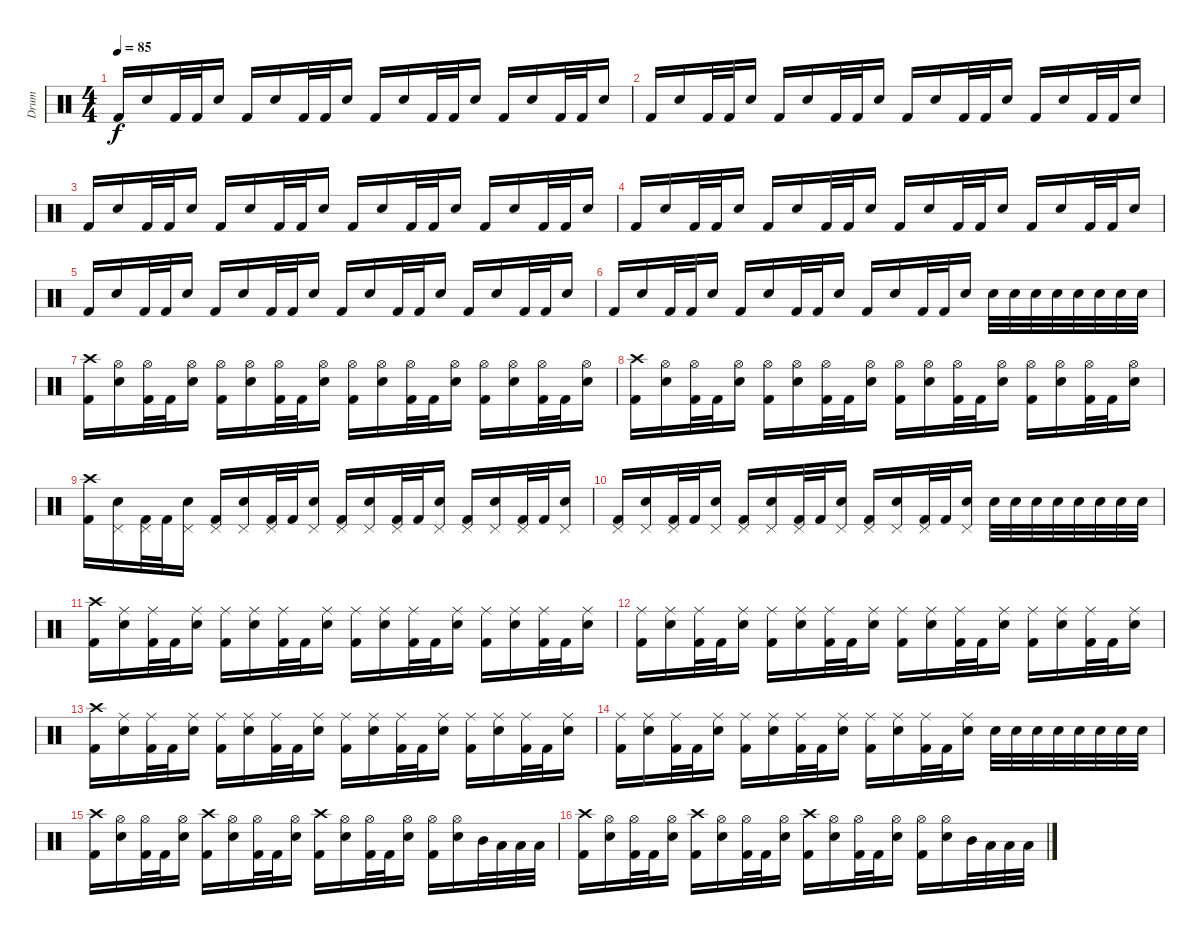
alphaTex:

\track ("Drum" "Drum") {instrument percussion}
\staff {score}
\articulation defaults
\ts (4 4)
\tempo 85
\clef neutral
\ks c "Kick (hit) 2".16{dy f} "Electric Snare (hit)".16 "Kick (hit) 2".32 "Kick (hit) 2".32 "Electric Snare (hit)".16 "Kick (hit) 2".16 "Electric Snare (hit)".16 "Kick (hit) 2".32 "Kick (hit) 2".32 "Electric Snare (hit)".16 "Kick (hit) 2".16 "Electric Snare (hit)".16 "Kick (hit) 2".32 "Kick (hit) 2".32 "Electric Snare (hit)".16 "Kick (hit) 2".16 "Electric Snare (hit)".16 "Kick (hit) 2".32 "Kick (hit) 2".32 "Electric Snare (hit)".16
|
"Kick (hit) 2".16 "Electric Snare (hit)".16 "Kick (hit) 2".32 "Kick (hit) 2".32 "Electric Snare (hit)".16 "Kick (hit) 2".16 "Electric Snare (hit)".16 "Kick (hit) 2".32 "Kick (hit) 2".32 "Electric Snare (hit)".16 "Kick (hit) 2".16 "Electric Snare (hit)".16 "Kick (hit) 2".32 "Kick (hit) 2".32 "Electric Snare (hit)".16 "Kick (hit) 2".16 "Electric Snare (hit)".16 "Kick (hit) 2".32 "Kick (hit) 2".32 "Electric Snare (hit)".16 |
"Kick (hit) 2".16 "Electric Snare (hit)".16 "Kick (hit) 2".32 "Kick (hit) 2".32 "Electric Snare (hit)".16 "Kick (hit) 2".16 "Electric Snare (hit)".16 "Kick (hit) 2".32 "Kick (hit) 2".32 "Electric Snare (hit)".16 "Kick (hit) 2".16 "Electric Snare (hit)".16 "Kick (hit) 2".32 "Kick (hit) 2".32 "Electric Snare (hit)".16 "Kick (hit) 2".16 "Electric Snare (hit)".16 "Kick (hit) 2".32 "Kick (hit) 2".32 "Electric Snare (hit)".16 |
"Kick (hit) 2".16 "Electric Snare (hit)".16 "Kick (hit) 2".32 "Kick (hit) 2".32 "Electric Snare (hit)".16 "Kick (hit) 2".16 "Electric Snare (hit)".16 "Kick (hit) 2".32 "Kick (hit) 2".32 "Electric Snare (hit)".16 "Kick (hit) 2".16 "Electric Snare (hit)".16 "Kick (hit) 2".32 "Kick (hit) 2".32 "Electric Snare (hit)".16 "Kick (hit) 2".16 "Electric Snare (hit)".16 "Kick (hit) 2".32 "Kick (hit) 2".32 "Electric Snare (hit)".16 |
"Kick (hit) 2".16 "Electric Snare (hit)".16 "Kick (hit) 2".32 "Kick (hit) 2".32 "Electric Snare (hit)".16 "Kick (hit) 2".16 "Electric Snare (hit)".16 "Kick (hit) 2".32 "Kick (hit) 2".32 "Electric Snare (hit)".16 "Kick (hit) 2".16 "Electric Snare (hit)".16 "Kick (hit) 2".32 "Kick (hit) 2".32 "Electric Snare (hit)".16 "Kick (hit) 2".16 "Electric Snare (hit)".16 "Kick (hit) 2".32 "Kick (hit) 2".32 "Electric Snare (hit)".16 |
"Kick (hit) 2".16 "Electric Snare (hit)".16 "Kick (hit) 2".32 "Kick (hit) 2".32 "Electric Snare (hit)".16 "Kick (hit) 2".16 "Electric Snare (hit)".16 "Kick (hit) 2".32 "Kick (hit) 2".32 "Electric Snare (hit)".16 "Kick (hit) 2".16 "Electric Snare (hit)".16 "Kick (hit) 2".32 "Kick (hit) 2".32 "Electric Snare (hit)".16 "Electric Snare (hit)".32 "Electric Snare (hit)".32 "Electric Snare (hit)".32 "Electric Snare (hit)".32 "Electric Snare (hit)".32 "Electric Snare (hit)".32 "Electric Snare (hit)".32 "Electric Snare (hit)".32 |
("Crash high (hit)" "Kick (hit) 2").16 ("Hi-Hat (open)" "Electric Snare (hit)").16 ("Hi-Hat (open)" "Kick (hit) 2").32 "Kick (hit) 2".32 ("Hi-Hat (open)" "Electric Snare (hit)").16 ("Hi-Hat (open)" "Kick (hit) 2").16 ("Hi-Hat (open)" "Electric Snare (hit)").16 ("Hi-Hat (open)" "Kick (hit) 2").32 "Kick (hit) 2".32 ("Hi-Hat (open)" "Electric Snare (hit)").16 ("Hi-Hat (open)" "Kick (hit) 2").16 ("Hi-Hat (open)" "Electric Snare (hit)").16 ("Hi-Hat (open)" "Kick (hit) 2").32 "Kick (hit) 2".32 ("Hi-Hat (open)" "Electric Snare (hit)").16 ("Hi-Hat (open)" "Kick (hit) 2").16 ("Hi-Hat (open)" "Electric Snare (hit)").16 ("Hi-Hat (open)" "Kick (hit) 2").32 "Kick (hit) 2".32 ("Hi-Hat (open)" "Electric Snare (hit)").16 |
("Crash high (hit)" "Kick (hit) 2").16 ("Hi-Hat (open)" "Electric Snare (hit)").16 ("Hi-Hat (open)" "Kick (hit) 2").32 "Kick (hit) 2".32 ("Hi-Hat (open)" "Electric Snare (hit)").16 ("Hi-Hat (open)" "Kick (hit) 2").16 ("Hi-Hat (open)" "Electric Snare (hit)").16 ("Hi-Hat (open)" "Kick (hit) 2").32 "Kick (hit) 2".32 ("Hi-Hat (open)" "Electric Snare (hit)").16 ("Hi-Hat (open)" "Kick (hit) 2").16 ("Hi-Hat (open)" "Electric Snare (hit)").16 ("Hi-Hat (open)" "Kick (hit) 2").32 "Kick (hit) 2".32 ("Hi-Hat (open)" "Electric Snare (hit)").16 ("Hi-Hat (open)" "Kick (hit) 2").16 ("Hi-Hat (open)" "Electric Snare (hit)").16 ("Hi-Hat (open)" "Kick (hit) 2").32 "Kick (hit) 2".32 ("Hi-Hat (open)" "Electric Snare (hit)").16 |
("Crash high (hit)" "Kick (hit) 2").16 ("Pedal Hi-Hat (hit)" "Electric Snare (hit)").16 ("Pedal Hi-Hat (hit)" "Kick (hit) 2").32 "Kick (hit) 2".32 ("Pedal Hi-Hat (hit)" "Electric Snare (hit)").16 ("Pedal Hi-Hat (hit)" "Kick (hit) 2").16 ("Pedal Hi-Hat (hit)" "Electric Snare (hit)").16 ("Pedal Hi-Hat (hit)" "Kick (hit) 2").32 "Kick (hit) 2".32 ("Pedal Hi-Hat (hit)" "Electric Snare (hit)").16 ("Pedal Hi-Hat (hit)" "Kick (hit) 2").16 ("Pedal Hi-Hat (hit)" "Electric Snare (hit)").16 ("Pedal Hi-Hat (hit)" "Kick (hit) 2").32 "Kick (hit) 2".32 ("Pedal Hi-Hat (hit)" "Electric Snare (hit)").16 ("Pedal Hi-Hat (hit)" "Kick (hit) 2").16 ("Pedal Hi-Hat (hit)" "Electric Snare (hit)").16 ("Pedal Hi-Hat (hit)" "Kick (hit) 2").32 "Kick (hit) 2".32 ("Pedal Hi-Hat (hit)" "Electric Snare (hit)").16 |
("Pedal Hi-Hat (hit)" "Kick (hit) 2").16 ("Pedal Hi-Hat (hit)" "Electric Snare (hit)").16 ("Pedal Hi-Hat (hit)" "Kick (hit) 2").32 "Kick (hit) 2".32 ("Pedal Hi-Hat (hit)" "Electric Snare (hit)").16 ("Pedal Hi-Hat (hit)" "Kick (hit) 2").16 ("Pedal Hi-Hat (hit)" "Electric Snare (hit)").16 ("Pedal Hi-Hat (hit)" "Kick (hit) 2").32 "Kick (hit) 2".32 ("Pedal Hi-Hat (hit)" "Electric Snare (hit)").16 ("Pedal Hi-Hat (hit)" "Kick (hit) 2").16 ("Pedal Hi-Hat (hit)" "Electric Snare (hit)").16 ("Pedal Hi-Hat (hit)" "Kick (hit) 2").32 "Kick (hit) 2".32 ("Pedal Hi-Hat (hit)" "Electric Snare (hit)").16 "Electric Snare (hit)".32 "Electric Snare (hit)".32 "Electric Snare (hit)".32 "Electric Snare (hit)".32 "Electric Snare (hit)".32 "Electric Snare (hit)".32 "Electric Snare (hit)".32 "Electric Snare (hit)".32 |
("Crash high (hit)" "Kick (hit) 2").16 ("Ride (middle)" "Electric Snare (hit)").16 ("Ride (middle)" "Kick (hit) 2").32 "Kick (hit) 2".32 ("Ride (middle)" "Electric Snare (hit)").16 ("Ride (middle)" "Kick (hit) 2").16 ("Ride (middle)" "Electric Snare (hit)").16 ("Ride (middle)" "Kick (hit) 2").32 "Kick (hit) 2".32 ("Ride (middle)" "Electric Snare (hit)").16 ("Ride (middle)" "Kick (hit) 2").16 ("Ride (middle)" "Electric Snare (hit)").16 ("Ride (middle)" "Kick (hit) 2").32 "Kick (hit) 2".32 ("Ride (middle)" "Electric Snare (hit)").16 ("Ride (middle)" "Kick (hit) 2").16 ("Ride (middle)" "Electric Snare (hit)").16 ("Ride (middle)" "Kick (hit) 2").32 "Kick (hit) 2".32 ("Ride (middle)" "Electric Snare (hit)").16 |
("Ride (middle)" "Kick (hit) 2").16 ("Ride (middle)" "Electric Snare (hit)").16 ("Ride (middle)" "Kick (hit) 2").32 "Kick (hit) 2".32 ("Ride (middle)" "Electric Snare (hit)").16 ("Ride (middle)" "Kick (hit) 2").16 ("Ride (middle)" "Electric Snare (hit)").16 ("Ride (middle)" "Kick (hit) 2").32 "Kick (hit) 2".32 ("Ride (middle)" "Electric Snare (hit)").16 ("Ride (middle)" "Kick (hit) 2").16 ("Ride (middle)" "Electric Snare (hit)").16 ("Ride (middle)" "Kick (hit) 2").32 "Kick (hit) 2".32 ("Ride (middle)" "Electric Snare (hit)").16 ("Ride (middle)" "Kick (hit) 2").16 ("Ride (middle)" "Electric Snare (hit)").16 ("Ride (middle)" "Kick (hit) 2").32 "Kick (hit) 2".32 ("Ride (middle)" "Electric Snare (hit)").16 |
("Crash high (hit)" "Kick (hit) 2").16 ("Ride (middle)" "Electric Snare (hit)").16 ("Ride (middle)" "Kick (hit) 2").32 "Kick (hit) 2".32 ("Ride (middle)" "Electric Snare (hit)").16 ("Ride (middle)" "Kick (hit) 2").16 ("Ride (middle)" "Electric Snare (hit)").16 ("Ride (middle)" "Kick (hit) 2").32 "Kick (hit) 2".32 ("Ride (middle)" "Electric Snare (hit)").16 ("Ride (middle)" "Kick (hit) 2").16 ("Ride (middle)" "Electric Snare (hit)").16 ("Ride (middle)" "Kick (hit) 2").32 "Kick (hit) 2".32 ("Ride (middle)" "Electric Snare (hit)").16 ("Ride (middle)" "Kick (hit) 2").16 ("Ride (middle)" "Electric Snare (hit)").16 ("Ride (middle)" "Kick (hit) 2").32 "Kick (hit) 2".32 ("Ride (middle)" "Electric Snare (hit)").16 |
("Ride (middle)" "Kick (hit) 2").16 ("Ride (middle)" "Electric Snare (hit)").16 ("Ride (middle)" "Kick (hit) 2").32 "Kick (hit) 2".32 ("Ride (middle)" "Electric Snare (hit)").16 ("Ride (middle)" "Kick (hit) 2").16 ("Ride (middle)" "Electric Snare (hit)").16 ("Ride (middle)" "Kick (hit) 2").32 "Kick (hit) 2".32 ("Ride (middle)" "Electric Snare (hit)").16 ("Ride (middle)" "Kick (hit) 2").16 ("Ride (middle)" "Electric Snare (hit)").16 ("Ride (middle)" "Kick (hit) 2").32 "Kick (hit) 2".32 ("Ride (middle)" "Electric Snare (hit)").16 "Electric Snare (hit)".32 "Electric Snare (hit)".32 "Electric Snare (hit)".32 "Electric Snare (hit)".32 "Electric Snare (hit)".32 "Electric Snare (hit)".32 "Electric Snare (hit)".32 "Electric Snare (hit)".32 |
("Crash high (hit)" "Kick (hit) 2").16 ("Hi-Hat (open)" "Electric Snare (hit)").16 ("Hi-Hat (open)" "Kick (hit) 2").32 "Kick (hit) 2".32 ("Hi-Hat (open)" "Electric Snare (hit)").16 ("Crash high (hit)" "Kick (hit) 2").16 ("Hi-Hat (open)" "Electric Snare (hit)").16 ("Hi-Hat (open)" "Kick (hit) 2").32 "Kick (hit) 2".32 ("Hi-Hat (open)" "Electric Snare (hit)").16 ("Crash high (hit)" "Kick (hit) 2").16 ("Hi-Hat (open)" "Electric Snare (hit)").16 ("Hi-Hat (open)" "Kick (hit) 2").32 "Kick (hit) 2".32 ("Hi-Hat (open)" "Electric Snare (hit)").16 ("Hi-Hat (open)" "Kick (hit) 2").16 ("Hi-Hat (open)" "Electric Snare (hit)").16 "Mid Tom (hit)".32 "Low Tom (hit)".32 "Low Tom (hit)".32 "Low Floor Tom (hit)".32 |
("Crash high (hit)" "Kick (hit) 2").16 ("Hi-Hat (open)" "Electric Snare (hit)").16 ("Hi-Hat (open)" "Kick (hit) 2").32 "Kick (hit) 2".32 ("Hi-Hat (open)" "Electric Snare (hit)").16 ("Crash high (hit)" "Kick (hit) 2").16 ("Hi-Hat (open)" "Electric Snare (hit)").16 ("Hi-Hat (open)" "Kick (hit) 2").32 "Kick (hit) 2".32 ("Hi-Hat (open)" "Electric Snare (hit)").16 ("Crash high (hit)" "Kick (hit) 2").16 ("Hi-Hat (open)" "Electric Snare (hit)").16 ("Hi-Hat (open)" "Kick (hit) 2").32 "Kick (hit) 2".32 ("Hi-Hat (open)" "Electric Snare (hit)").16 ("Hi-Hat (open)" "Kick (hit) 2").16 ("Hi-Hat (open)" "Electric Snare (hit)").16 "Mid Tom (hit)".32 "Low Tom (hit)".32 "Low Tom (hit)".32 "Low Floor Tom (hit)".32
